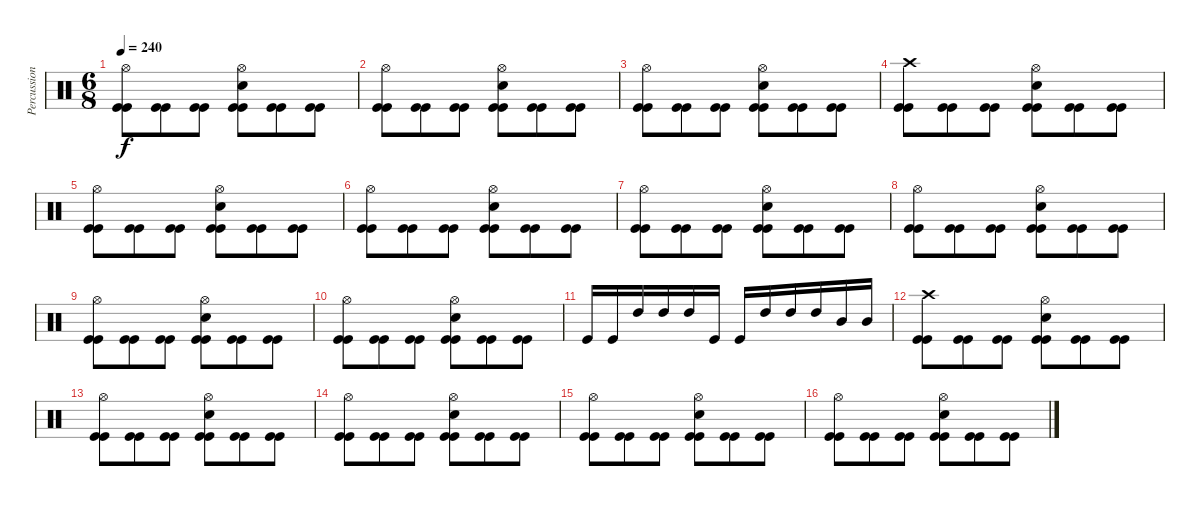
\track ("Percussion" "Percussion") {instrument percussion}
\staff {score}
\articulation defaults
\ts (6 8)
\tempo 240
\clef neutral
\ks c
("Hi-Hat (open)" "Kick (hit)" "Kick (hit)").8{dy f} ("Kick (hit)" "Kick (hit)").8 ("Kick (hit)" "Kick (hit)").8 ("Hi-Hat (open)" "Snare (hit) 2" "Kick (hit)" "Kick (hit)").8 ("Kick (hit)" "Kick (hit)").8 ("Kick (hit)" "Kick (hit)").8 |
("Hi-Hat (open)" "Kick (hit)" "Kick (hit)").8 ("Kick (hit)" "Kick (hit)").8 ("Kick (hit)" "Kick (hit)").8 ("Hi-Hat (open)" "Snare (hit) 2" "Kick (hit)" "Kick (hit)").8 ("Kick (hit)" "Kick (hit)").8 ("Kick (hit)" "Kick (hit)").8 |
("Hi-Hat (open)" "Kick (hit)" "Kick (hit)").8 ("Kick (hit)" "Kick (hit)").8 ("Kick (hit)" "Kick (hit)").8 ("Hi-Hat (open)" "Snare (hit) 2" "Kick (hit)" "Kick (hit)").8 ("Kick (hit)" "Kick (hit)").8 ("Kick (hit)" "Kick (hit)").8 |
("Crash high (hit)" "Kick (hit)" "Kick (hit)").8 ("Kick (hit)" "Kick (hit)").8 ("Kick (hit)" "Kick (hit)").8 ("Hi-Hat (open)" "Snare (hit) 2" "Kick (hit)" "Kick (hit)").8 ("Kick (hit)" "Kick (hit)").8 ("Kick (hit)" "Kick (hit)").8 |
("Hi-Hat (open)" "Kick (hit)" "Kick (hit)").8 ("Kick (hit)" "Kick (hit)").8 ("Kick (hit)" "Kick (hit)").8 ("Hi-Hat (open)" "Snare (hit) 2" "Kick (hit)" "Kick (hit)").8 ("Kick (hit)" "Kick (hit)").8 ("Kick (hit)" "Kick (hit)").8 |
("Hi-Hat (open)" "Kick (hit)" "Kick (hit)").8 ("Kick (hit)" "Kick (hit)").8 ("Kick (hit)" "Kick (hit)").8 ("Hi-Hat (open)" "Snare (hit) 2" "Kick (hit)" "Kick (hit)").8 ("Kick (hit)" "Kick (hit)").8 ("Kick (hit)" "Kick (hit)").8 |
("Hi-Hat (open)" "Kick (hit)" "Kick (hit)").8 ("Kick (hit)" "Kick (hit)").8 ("Kick (hit)" "Kick (hit)").8 ("Hi-Hat (open)" "Snare (hit) 2" "Kick (hit)" "Kick (hit)").8 ("Kick (hit)" "Kick (hit)").8 ("Kick (hit)" "Kick (hit)").8 |
("Hi-Hat (open)" "Kick (hit)" "Kick (hit)").8 ("Kick (hit)" "Kick (hit)").8 ("Kick (hit)" "Kick (hit)").8 ("Hi-Hat (open)" "Snare (hit) 2" "Kick (hit)" "Kick (hit)").8 ("Kick (hit)" "Kick (hit)").8 ("Kick (hit)" "Kick (hit)").8 |
("Hi-Hat (open)" "Kick (hit)" "Kick (hit)").8 ("Kick (hit)" "Kick (hit)").8 ("Kick (hit)" "Kick (hit)").8 ("Hi-Hat (open)" "Snare (hit) 2" "Kick (hit)" "Kick (hit)").8 ("Kick (hit)" "Kick (hit)").8 ("Kick (hit)" "Kick (hit)").8 |
("Hi-Hat (open)" "Kick (hit)" "Kick (hit)").8 ("Kick (hit)" "Kick (hit)").8 ("Kick (hit)" "Kick (hit)").8 ("Hi-Hat (open)" "Snare (hit) 2" "Kick (hit)" "Kick (hit)").8 ("Kick (hit)" "Kick (hit)").8 ("Kick (hit)" "Kick (hit)").8 |
"Kick (hit)".16 "Kick (hit)".16 "High Tom (hit)".16 "High Tom (hit)".16 "High Tom (hit)".16 "Kick (hit)".16 "Kick (hit)".16 "High Tom (hit)".16 "High Tom (hit)".16 "High Tom (hit)".16 "Mid Tom (hit)".16 "Mid Tom (hit)".16 |
("Crash high (hit)" "Kick (hit)" "Kick (hit)").8 ("Kick (hit)" "Kick (hit)").8 ("Kick (hit)" "Kick (hit)").8 ("Hi-Hat (open)" "Snare (hit) 2" "Kick (hit)" "Kick (hit)").8 ("Kick (hit)" "Kick (hit)").8 ("Kick (hit)" "Kick (hit)").8 |
("Hi-Hat (open)" "Kick (hit)" "Kick (hit)").8 ("Kick (hit)" "Kick (hit)").8 ("Kick (hit)" "Kick (hit)").8 ("Hi-Hat (open)" "Snare (hit) 2" "Kick (hit)" "Kick (hit)").8 ("Kick (hit)" "Kick (hit)").8 ("Kick (hit)" "Kick (hit)").8 |
("Hi-Hat (open)" "Kick (hit)" "Kick (hit)").8 ("Kick (hit)" "Kick (hit)").8 ("Kick (hit)" "Kick (hit)").8 ("Hi-Hat (open)" "Snare (hit) 2" "Kick (hit)" "Kick (hit)").8 ("Kick (hit)" "Kick (hit)").8 ("Kick (hit)" "Kick (hit)").8 |
("Hi-Hat (open)" "Kick (hit)" "Kick (hit)").8 ("Kick (hit)" "Kick (hit)").8 ("Kick (hit)" "Kick (hit)").8 ("Hi-Hat (open)" "Snare (hit) 2" "Kick (hit)" "Kick (hit)").8 ("Kick (hit)" "Kick (hit)").8 ("Kick (hit)" "Kick (hit)").8 |
("Hi-Hat (open)" "Kick (hit)" "Kick (hit)").8 ("Kick (hit)" "Kick (hit)").8 ("Kick (hit)" "Kick (hit)").8 ("Hi-Hat (open)" "Snare (hit) 2" "Kick (hit)" "Kick (hit)").8 ("Kick (hit)" "Kick (hit)").8 ("Kick (hit)" "Kick (hit)").8
